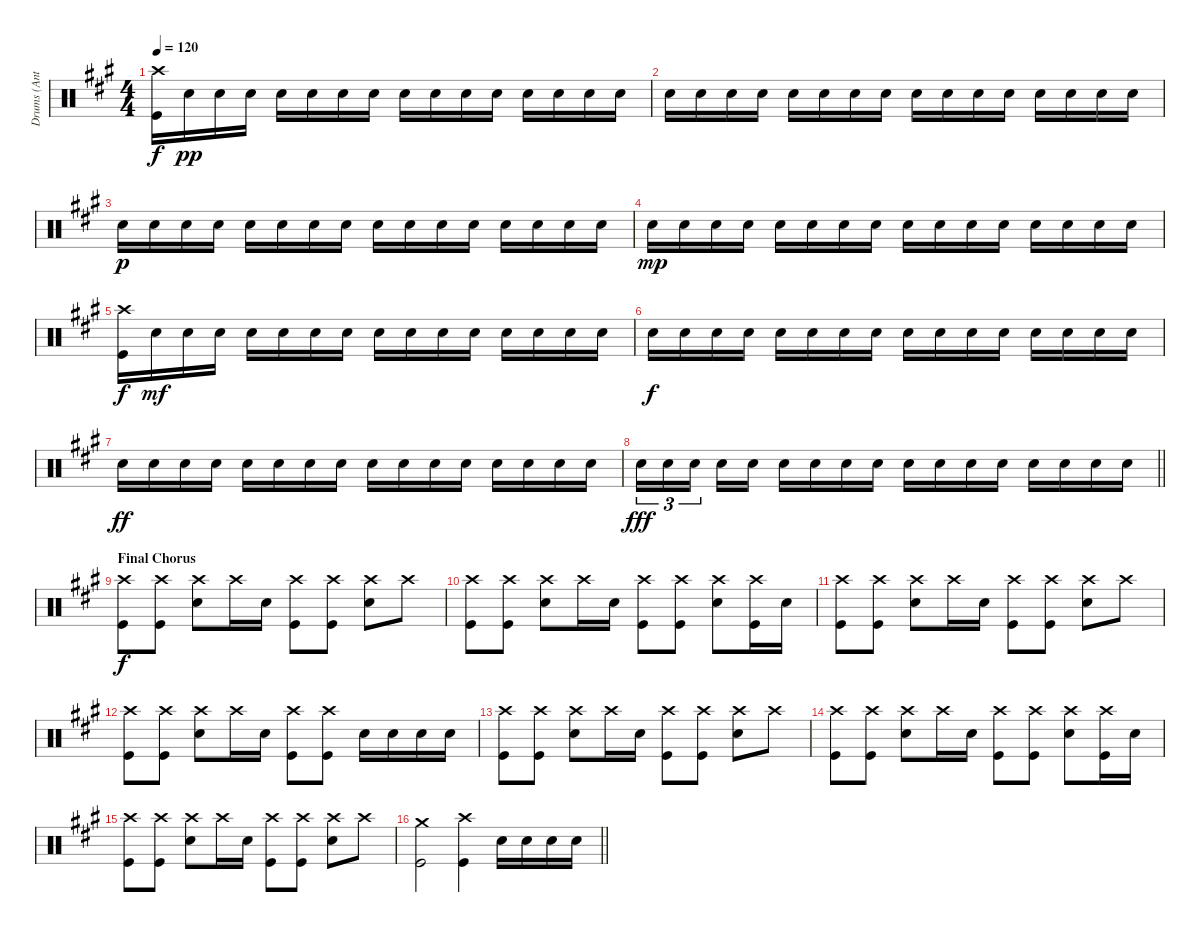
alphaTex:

\track ("Drums (Ant)" "Drums (Ant") {instrument percussion}
\staff {score}
\articulation defaults
\ts (4 4)
\tempo 120
\clef neutral
\ks a
("Crash high (hit)" "Kick (hit)").16{dy f} "Snare (hit) 2".16{dy pp} "Snare (hit) 2".16 "Snare (hit) 2".16 "Snare (hit) 2".16 "Snare (hit) 2".16 "Snare (hit) 2".16 "Snare (hit) 2".16 "Snare (hit) 2".16 "Snare (hit) 2".16 "Snare (hit) 2".16 "Snare (hit) 2".16 "Snare (hit) 2".16 "Snare (hit) 2".16 "Snare (hit) 2".16 "Snare (hit) 2".16 |
"Snare (hit) 2".16 "Snare (hit) 2".16 "Snare (hit) 2".16 "Snare (hit) 2".16 "Snare (hit) 2".16 "Snare (hit) 2".16 "Snare (hit) 2".16 "Snare (hit) 2".16 "Snare (hit) 2".16 "Snare (hit) 2".16 "Snare (hit) 2".16 "Snare (hit) 2".16 "Snare (hit) 2".16 "Snare (hit) 2".16 "Snare (hit) 2".16 "Snare (hit) 2".16 |
"Snare (hit) 2".16{dy p} "Snare (hit) 2".16 "Snare (hit) 2".16 "Snare (hit) 2".16 "Snare (hit) 2".16 "Snare (hit) 2".16 "Snare (hit) 2".16 "Snare (hit) 2".16 "Snare (hit) 2".16 "Snare (hit) 2".16 "Snare (hit) 2".16 "Snare (hit) 2".16 "Snare (hit) 2".16 "Snare (hit) 2".16 "Snare (hit) 2".16 "Snare (hit) 2".16 |
"Snare (hit) 2".16{dy mp} "Snare (hit) 2".16 "Snare (hit) 2".16 "Snare (hit) 2".16 "Snare (hit) 2".16 "Snare (hit) 2".16 "Snare (hit) 2".16 "Snare (hit) 2".16 "Snare (hit) 2".16 "Snare (hit) 2".16 "Snare (hit) 2".16 "Snare (hit) 2".16 "Snare (hit) 2".16 "Snare (hit) 2".16 "Snare (hit) 2".16 "Snare (hit) 2".16 |
("Crash high (hit)" "Kick (hit)").16{dy f} "Snare (hit) 2".16{dy mf} "Snare (hit) 2".16 "Snare (hit) 2".16 "Snare (hit) 2".16 "Snare (hit) 2".16 "Snare (hit) 2".16 "Snare (hit) 2".16 "Snare (hit) 2".16 "Snare (hit) 2".16 "Snare (hit) 2".16 "Snare (hit) 2".16 "Snare (hit) 2".16 "Snare (hit) 2".16 "Snare (hit) 2".16 "Snare (hit) 2".16 |
"Snare (hit) 2".16{dy f} "Snare (hit) 2".16 "Snare (hit) 2".16 "Snare (hit) 2".16 "Snare (hit) 2".16 "Snare (hit) 2".16 "Snare (hit) 2".16 "Snare (hit) 2".16 "Snare (hit) 2".16 "Snare (hit) 2".16 "Snare (hit) 2".16 "Snare (hit) 2".16 "Snare (hit) 2".16 "Snare (hit) 2".16 "Snare (hit) 2".16 "Snare (hit) 2".16 |
"Snare (hit) 2".16{dy ff} "Snare (hit) 2".16 "Snare (hit) 2".16 "Snare (hit) 2".16 "Snare (hit) 2".16 "Snare (hit) 2".16 "Snare (hit) 2".16 "Snare (hit) 2".16 "Snare (hit) 2".16 "Snare (hit) 2".16 "Snare (hit) 2".16 "Snare (hit) 2".16 "Snare (hit) 2".16 "Snare (hit) 2".16 "Snare (hit) 2".16 "Snare (hit) 2".16 |
\barLineRight lightlight "Snare (hit) 2".16{tu (3 2) dy fff} "Snare (hit) 2".16{tu (3 2)} "Snare (hit) 2".16{tu (3 2) beam splitsecondary} "Snare (hit) 2".16 "Snare (hit) 2".16 "Snare (hit) 2".16 "Snare (hit) 2".16 "Snare (hit) 2".16 "Snare (hit) 2".16 "Snare (hit) 2".16 "Snare (hit) 2".16 "Snare (hit) 2".16 "Snare (hit) 2".16 "Snare (hit) 2".16 "Snare (hit) 2".16 "Snare (hit) 2".16 "Snare (hit) 2".16
|
\section ("" "Final Chorus")
("Crash high (hit)" "Kick (hit)").8{dy f} ("Crash high (hit)" "Kick (hit)").8 ("Crash high (hit)" "Snare (hit) 2").8 "Crash high (hit)".16 "Snare (hit) 2".16 ("Crash high (hit)" "Kick (hit)").8 ("Crash high (hit)" "Kick (hit)").8 ("Crash high (hit)" "Snare (hit) 2").8 "Crash high (hit)".8 |
("Crash high (hit)" "Kick (hit)").8 ("Crash high (hit)" "Kick (hit)").8 ("Crash high (hit)" "Snare (hit) 2").8 "Crash high (hit)".16 "Snare (hit) 2".16 ("Crash high (hit)" "Kick (hit)").8 ("Crash high (hit)" "Kick (hit)").8 ("Crash high (hit)" "Snare (hit) 2").8 ("Crash high (hit)" "Kick (hit)").16 "Snare (hit) 2".16 |
("Crash high (hit)" "Kick (hit)").8 ("Crash high (hit)" "Kick (hit)").8 ("Crash high (hit)" "Snare (hit) 2").8 "Crash high (hit)".16 "Snare (hit) 2".16 ("Crash high (hit)" "Kick (hit)").8 ("Crash high (hit)" "Kick (hit)").8 ("Crash high (hit)" "Snare (hit) 2").8 "Crash high (hit)".8 |
("Crash high (hit)" "Kick (hit)").8 ("Crash high (hit)" "Kick (hit)").8 ("Crash high (hit)" "Snare (hit) 2").8 "Crash high (hit)".16 "Snare (hit) 2".16 ("Crash high (hit)" "Kick (hit)").8 ("Crash high (hit)" "Kick (hit)").8 "Snare (hit) 2".16 "Snare (hit) 2".16 "Snare (hit) 2".16 "Snare (hit) 2".16 |
("Crash high (hit)" "Kick (hit)").8 ("Crash high (hit)" "Kick (hit)").8 ("Crash high (hit)" "Snare (hit) 2").8 "Crash high (hit)".16 "Snare (hit) 2".16 ("Crash high (hit)" "Kick (hit)").8 ("Crash high (hit)" "Kick (hit)").8 ("Crash high (hit)" "Snare (hit) 2").8 "Crash high (hit)".8 |
("Crash high (hit)" "Kick (hit)").8 ("Crash high (hit)" "Kick (hit)").8 ("Crash high (hit)" "Snare (hit) 2").8 "Crash high (hit)".16 "Snare (hit) 2".16 ("Crash high (hit)" "Kick (hit)").8 ("Crash high (hit)" "Kick (hit)").8 ("Crash high (hit)" "Snare (hit) 2").8 ("Crash high (hit)" "Kick (hit)").16 "Snare (hit) 2".16 |
("Crash high (hit)" "Kick (hit)").8 ("Crash high (hit)" "Kick (hit)").8 ("Crash high (hit)" "Snare (hit) 2").8 "Crash high (hit)".16 "Snare (hit) 2".16 ("Crash high (hit)" "Kick (hit)").8 ("Crash high (hit)" "Kick (hit)").8 ("Crash high (hit)" "Snare (hit) 2").8 "Crash high (hit)".8 |
\barLineRight lightlight
("Crash medium (hit)" "Kick (hit)").2 ("Crash high (hit)" "Kick (hit)").4 "Snare (hit) 2".16 "Snare (hit) 2".16 "Snare (hit) 2".16 "Snare (hit) 2".16
